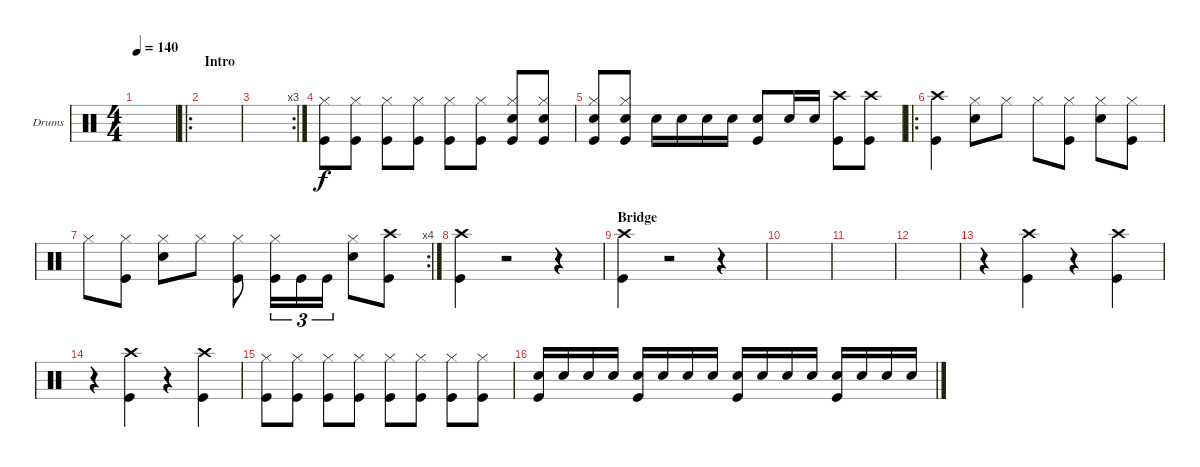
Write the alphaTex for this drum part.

\defaultSystemsLayout 4
\bracketExtendMode groupsimilarinstruments
\firstSystemTrackNameOrientation horizontal
\otherSystemsTrackNameOrientation horizontal
\track ("Drums" "Drums") {instrument percussion}
\staff {score}
\articulation defaults
\ts (4 4)
\tempo 140
\clef neutral
\ks c
|
\ro
\section ("" "Intro")
|
\rc 3
|
("Kick (hit)" "Hi-Hat (closed)").8 ("Kick (hit)" "Hi-Hat (closed)").8 ("Kick (hit)" "Hi-Hat (closed)").8 ("Kick (hit)" "Hi-Hat (closed)").8 ("Kick (hit)" "Hi-Hat (closed)").8 ("Kick (hit)" "Hi-Hat (closed)").8 ("Kick (hit)" "Snare (hit) 2" "Hi-Hat (closed)").8 ("Kick (hit)" "Snare (hit) 2" "Hi-Hat (closed)").8 |
("Kick (hit)" "Snare (hit) 2" "Hi-Hat (closed)").8 ("Kick (hit)" "Snare (hit) 2" "Hi-Hat (closed)").8 "Snare (hit) 2".16 "Snare (hit) 2".16 "Snare (hit) 2".16 "Snare (hit) 2".16 ("Kick (hit)" "Snare (hit) 2").8 "Snare (hit) 2".16 "Snare (hit) 2".16 ("Kick (hit)" "Crash high (hit)").8 ("Kick (hit)" "Crash high (hit)").8 |
\ro
("Crash high (hit)" "Kick (hit)").4 ("Snare (hit) 2" "Hi-Hat (closed)").8 "Hi-Hat (closed)".8 "Hi-Hat (closed)".8 ("Kick (hit)" "Hi-Hat (closed)").8 ("Snare (hit) 2" "Hi-Hat (closed)").8 ("Kick (hit)" "Hi-Hat (closed)").8 |
\rc 4 "Hi-Hat (closed)".8
("Kick (hit)" "Hi-Hat (closed)").8 ("Snare (hit) 2" "Hi-Hat (closed)").8 "Hi-Hat (closed)".8 ("Kick (hit)" "Hi-Hat (closed)").8 ("Kick (hit)" "Hi-Hat (closed)").16{tu (3 2)} "Kick (hit)".16{tu (3 2)} "Kick (hit)".16{tu (3 2)} ("Snare (hit) 2" "Hi-Hat (closed)").8 ("Kick (hit)" "Crash high (hit)").8 |
("Kick (hit)" "Crash high (hit)").4 r.2 r.4 |
\section ("" "Bridge")
("Kick (hit)" "Crash high (hit)").4 r.2 r.4 |
|
|
|
r.4 ("Kick (hit)" "Crash high (hit)").4 r.4 ("Kick (hit)" "Crash high (hit)").4 |
r.4 ("Kick (hit)" "Crash high (hit)").4 r.4 ("Crash high (hit)" "Kick (hit)").4 |
("Kick (hit)" "Hi-Hat (closed)").8 ("Kick (hit)" "Hi-Hat (closed)").8 ("Kick (hit)" "Hi-Hat (closed)").8 ("Kick (hit)" "Hi-Hat (closed)").8 ("Kick (hit)" "Hi-Hat (closed)").8 ("Kick (hit)" "Hi-Hat (closed)").8 ("Kick (hit)" "Hi-Hat (closed)").8 ("Kick (hit)" "Hi-Hat (closed)").8 |
("Kick (hit)" "Snare (hit) 2").16 "Snare (hit) 2".16 "Snare (hit) 2".16 "Snare (hit) 2".16 ("Kick (hit)" "Snare (hit) 2").16 "Snare (hit) 2".16 "Snare (hit) 2".16 "Snare (hit) 2".16 ("Kick (hit)" "Snare (hit) 2").16 "Snare (hit) 2".16 "Snare (hit) 2".16 "Snare (hit) 2".16 ("Kick (hit)" "Snare (hit) 2").16 "Snare (hit) 2".16 "Snare (hit) 2".16 "Snare (hit) 2".16
